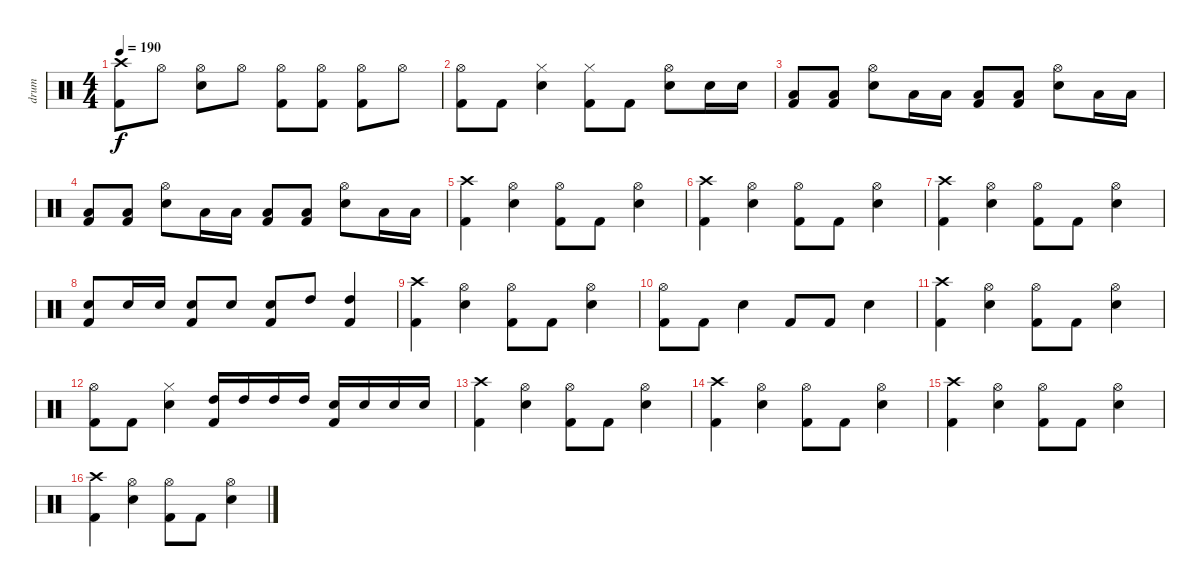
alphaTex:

\track ("drum" "drum") {instrument percussion}
\staff {score}
\articulation defaults
\ts (4 4)
\tempo 190
\clef neutral
\ks c
("Crash high (hit)" "Kick (hit) 2").8{dy f volume 16} "Hi-Hat (open)".8 ("Hi-Hat (open)" "Snare (hit) 2").8 "Hi-Hat (open)".8 ("Hi-Hat (open)" "Kick (hit) 2").8 ("Hi-Hat (open)" "Kick (hit) 2").8 ("Hi-Hat (open)" "Kick (hit) 2").8 "Hi-Hat (open)".8 |
("Hi-Hat (open)" "Kick (hit) 2").8 "Kick (hit) 2".8 ("Hi-Hat (closed)" "Snare (hit) 2").4 ("Hi-Hat (closed)" "Kick (hit) 2").8 "Kick (hit) 2".8 ("Hi-Hat (open)" "Snare (hit) 2").8 "Snare (hit) 2".16 "Snare (hit) 2".16 |
("Low Tom (hit)" "Kick (hit) 2").8 ("Low Tom (hit)" "Kick (hit) 2").8 ("Hi-Hat (open)" "Snare (hit) 2").8 "Low Tom (hit)".16 "Low Tom (hit)".16 ("Low Tom (hit)" "Kick (hit) 2").8 ("Low Tom (hit)" "Kick (hit) 2").8 ("Hi-Hat (open)" "Snare (hit) 2").8 "Low Tom (hit)".16 "Low Tom (hit)".16 |
("Low Tom (hit)" "Kick (hit) 2").8 ("Low Tom (hit)" "Kick (hit) 2").8 ("Hi-Hat (open)" "Snare (hit) 2").8 "Low Tom (hit)".16 "Low Tom (hit)".16 ("Low Tom (hit)" "Kick (hit) 2").8 ("Low Tom (hit)" "Kick (hit) 2").8 ("Hi-Hat (open)" "Snare (hit) 2").8 "Low Tom (hit)".16 "Low Tom (hit)".16 |
("Crash high (hit)" "Kick (hit) 2").4 ("Hi-Hat (open)" "Snare (hit) 2").4 ("Hi-Hat (open)" "Kick (hit) 2").8 "Kick (hit) 2".8 ("Hi-Hat (open)" "Snare (hit) 2").4 |
("Crash high (hit)" "Kick (hit) 2").4 ("Hi-Hat (open)" "Snare (hit) 2").4 ("Hi-Hat (open)" "Kick (hit) 2").8 "Kick (hit) 2".8 ("Hi-Hat (open)" "Snare (hit) 2").4 |
("Crash high (hit)" "Kick (hit) 2").4 ("Hi-Hat (open)" "Snare (hit) 2").4 ("Hi-Hat (open)" "Kick (hit) 2").8 "Kick (hit) 2".8 ("Hi-Hat (open)" "Snare (hit) 2").4 |
("Snare (hit) 2" "Kick (hit) 2").8 "Snare (hit) 2".16 "Snare (hit) 2".16 ("Snare (hit) 2" "Kick (hit) 2").8 "Snare (hit) 2".8 ("Snare (hit) 2" "Kick (hit) 2").8 "High Tom (hit)".8 ("High Tom (hit)" "Kick (hit) 2").4 |
("Crash high (hit)" "Kick (hit) 2").4 ("Hi-Hat (open)" "Snare (hit) 2").4 ("Hi-Hat (open)" "Kick (hit) 2").8 "Kick (hit) 2".8 ("Hi-Hat (open)" "Snare (hit) 2").4 |
("Hi-Hat (open)" "Kick (hit) 2").8 "Kick (hit) 2".8 "Snare (hit) 2".4 "Kick (hit) 2".8 "Kick (hit) 2".8 "Snare (hit) 2".4 |
("Crash high (hit)" "Kick (hit) 2").4 ("Hi-Hat (open)" "Snare (hit) 2").4 ("Hi-Hat (open)" "Kick (hit) 2").8 "Kick (hit) 2".8 ("Hi-Hat (open)" "Snare (hit) 2").4 |
("Hi-Hat (open)" "Kick (hit) 2").8 "Kick (hit) 2".8 ("Hi-Hat (closed)" "Snare (hit) 2").4 ("High Tom (hit)" "Kick (hit) 2").16 "High Tom (hit)".16 "High Tom (hit)".16 "High Tom (hit)".16 ("Snare (hit) 2" "Kick (hit) 2").16 "Snare (hit) 2".16 "Snare (hit) 2".16 "Snare (hit) 2".16 |
("Crash high (hit)" "Kick (hit) 2").4 ("Hi-Hat (open)" "Snare (hit) 2").4 ("Hi-Hat (open)" "Kick (hit) 2").8 "Kick (hit) 2".8 ("Hi-Hat (open)" "Snare (hit) 2").4 |
("Crash high (hit)" "Kick (hit) 2").4 ("Hi-Hat (open)" "Snare (hit) 2").4 ("Hi-Hat (open)" "Kick (hit) 2").8 "Kick (hit) 2".8 ("Hi-Hat (open)" "Snare (hit) 2").4 |
("Crash high (hit)" "Kick (hit) 2").4 ("Hi-Hat (open)" "Snare (hit) 2").4 ("Hi-Hat (open)" "Kick (hit) 2").8 "Kick (hit) 2".8 ("Hi-Hat (open)" "Snare (hit) 2").4 |
("Crash high (hit)" "Kick (hit) 2").4 ("Hi-Hat (open)" "Snare (hit) 2").4 ("Hi-Hat (open)" "Kick (hit) 2").8 "Kick (hit) 2".8 ("Hi-Hat (open)" "Snare (hit) 2").4
